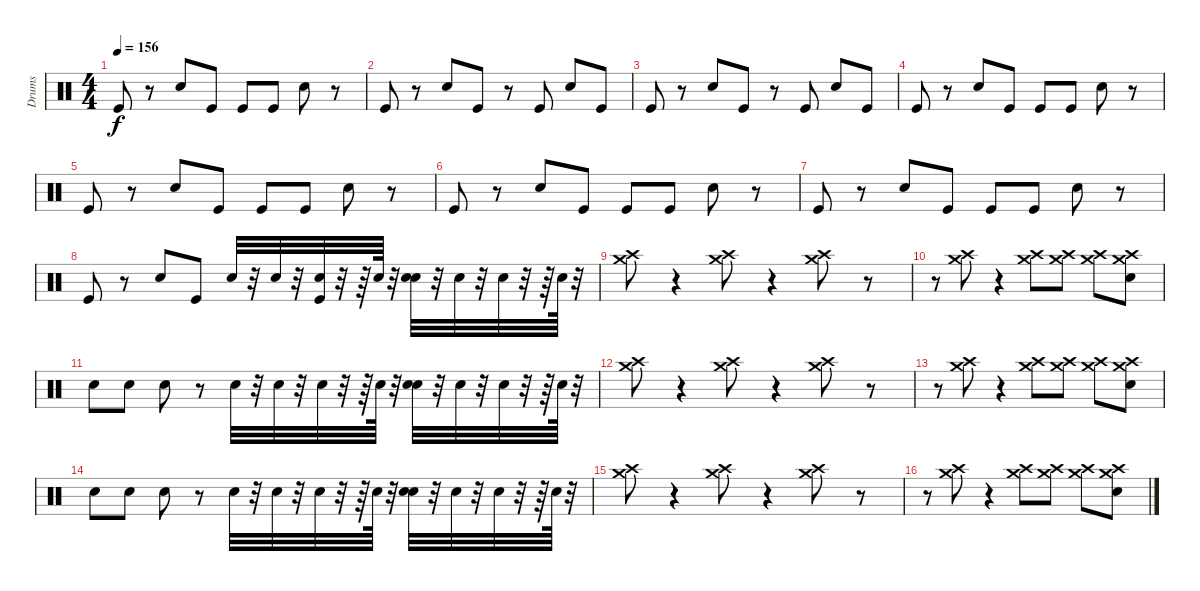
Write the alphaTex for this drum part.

\track ("Drums" "Drums") {instrument percussion}
\staff {score}
\articulation defaults
\ts (4 4)
\tempo 156
\clef neutral
\ks c "Kick (hit)".8{dy f}
r.8 "Snare (hit) 2".8 "Kick (hit)".8 "Kick (hit)".8 "Kick (hit)".8 "Snare (hit) 2".8 r.8 |
"Kick (hit)".8 r.8 "Snare (hit) 2".8 "Kick (hit)".8 r.8 "Kick (hit)".8 "Snare (hit) 2".8 "Kick (hit)".8 |
"Kick (hit)".8 r.8 "Snare (hit) 2".8 "Kick (hit)".8 r.8 "Kick (hit)".8 "Snare (hit) 2".8 "Kick (hit)".8 |
"Kick (hit)".8 r.8 "Snare (hit) 2".8 "Kick (hit)".8 "Kick (hit)".8 "Kick (hit)".8 "Snare (hit) 2".8 r.8 |
"Kick (hit)".8 r.8 "Snare (hit) 2".8 "Kick (hit)".8 "Kick (hit)".8 "Kick (hit)".8 "Snare (hit) 2".8 r.8 |
"Kick (hit)".8 r.8 "Snare (hit) 2".8 "Kick (hit)".8 "Kick (hit)".8 "Kick (hit)".8 "Snare (hit) 2".8 r.8 |
"Kick (hit)".8 r.8 "Snare (hit) 2".8 "Kick (hit)".8 "Kick (hit)".8 "Kick (hit)".8 "Snare (hit) 2".8 r.8 |
"Kick (hit)".8 r.8 "Snare (hit) 2".8 "Kick (hit)".8 "Electric Snare (hit)".32 r.32 "Electric Snare (hit)".32 r.32 ("Kick (hit)" "Electric Snare (hit)").32 r.32 r.64 "Electric Snare (hit)".64 r.32 ("Snare (hit) 2" "Electric Snare (hit)").32 r.32 "Electric Snare (hit)".32 r.32 "Electric Snare (hit)".32 r.32 r.64 "Electric Snare (hit)".64 r.32 |
("Crash high (hit)" "Crash medium (hit)").8 r.4 ("Crash high (hit)" "Crash medium (hit)").8 r.4 ("Crash high (hit)" "Crash medium (hit)").8 r.8 |
r.8 ("Crash high (hit)" "Crash medium (hit)").8 r.4 ("Crash high (hit)" "Crash medium (hit)").8 ("Crash high (hit)" "Crash medium (hit)").8 ("Crash high (hit)" "Crash medium (hit)").8 ("Crash high (hit)" "Crash medium (hit)" "Snare (hit) 2").8 |
"Snare (hit) 2".8 "Snare (hit) 2".8 "Snare (hit) 2".8 r.8 "Electric Snare (hit)".32 r.32 "Electric Snare (hit)".32 r.32 "Electric Snare (hit)".32 r.32 r.64 "Electric Snare (hit)".64 r.32 ("Snare (hit) 2" "Electric Snare (hit)").32 r.32 "Electric Snare (hit)".32 r.32 "Electric Snare (hit)".32 r.32 r.64 "Electric Snare (hit)".64 r.32 |
("Crash high (hit)" "Crash medium (hit)").8 r.4 ("Crash high (hit)" "Crash medium (hit)").8 r.4 ("Crash high (hit)" "Crash medium (hit)").8 r.8 |
r.8 ("Crash high (hit)" "Crash medium (hit)").8 r.4 ("Crash high (hit)" "Crash medium (hit)").8 ("Crash high (hit)" "Crash medium (hit)").8 ("Crash high (hit)" "Crash medium (hit)").8 ("Crash high (hit)" "Crash medium (hit)" "Snare (hit) 2").8 |
"Snare (hit) 2".8 "Snare (hit) 2".8 "Snare (hit) 2".8 r.8 "Electric Snare (hit)".32 r.32 "Electric Snare (hit)".32 r.32 "Electric Snare (hit)".32 r.32 r.64 "Electric Snare (hit)".64 r.32 ("Snare (hit) 2" "Electric Snare (hit)").32 r.32 "Electric Snare (hit)".32 r.32 "Electric Snare (hit)".32 r.32 r.64 "Electric Snare (hit)".64 r.32 |
("Crash high (hit)" "Crash medium (hit)").8 r.4 ("Crash high (hit)" "Crash medium (hit)").8 r.4 ("Crash high (hit)" "Crash medium (hit)").8 r.8 |
r.8 ("Crash high (hit)" "Crash medium (hit)").8 r.4 ("Crash high (hit)" "Crash medium (hit)").8 ("Crash high (hit)" "Crash medium (hit)").8 ("Crash high (hit)" "Crash medium (hit)").8 ("Crash high (hit)" "Crash medium (hit)" "Snare (hit) 2").8
